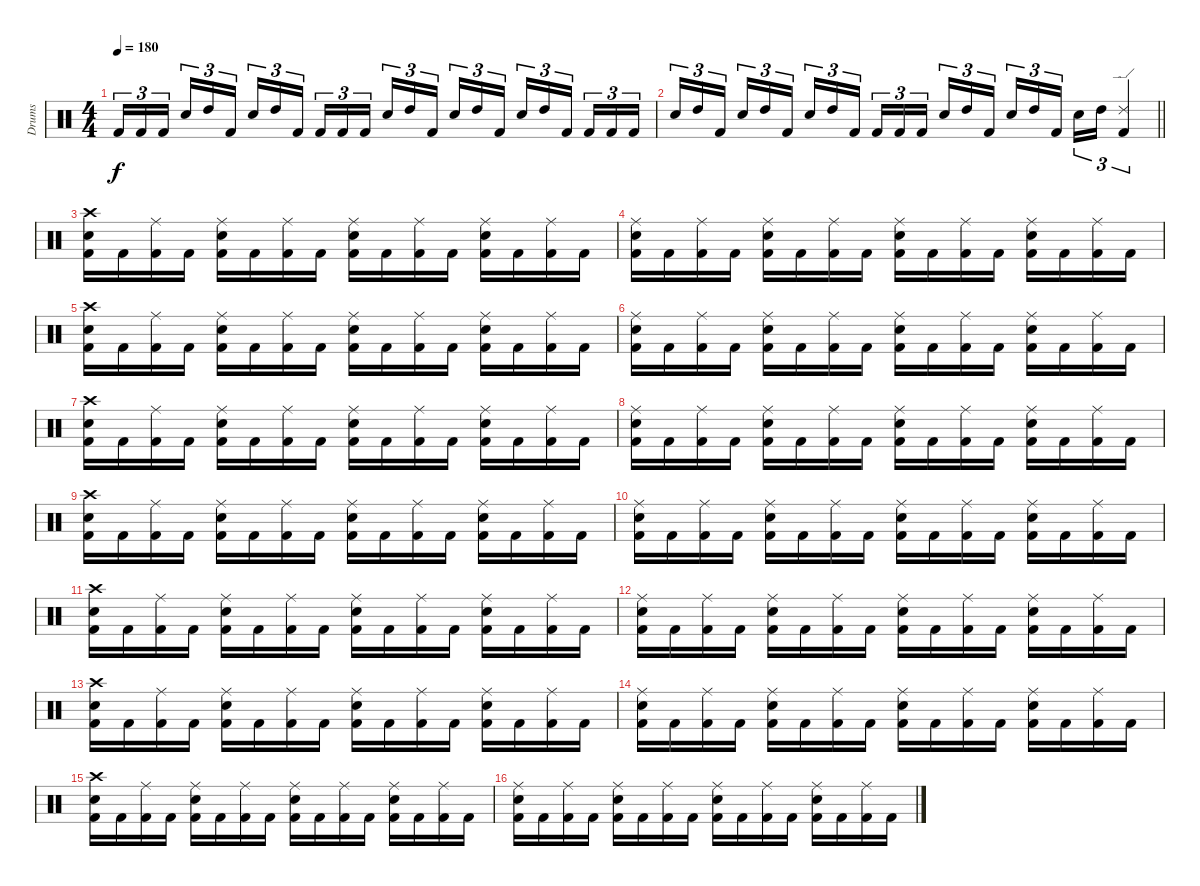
\track ("Drums" "Drums") {instrument percussion}
\staff {score}
\articulation defaults
\ts (4 4)
\tempo 180
\clef neutral
\ks c "Kick (hit) 2".16{tu (3 2) dy f} "Kick (hit) 2".16{tu (3 2)} "Kick (hit) 2".16{tu (3 2)} "Electric Snare (hit)".16{tu (3 2)} "High Tom (hit)".16{tu (3 2)} "Kick (hit) 2".16{tu (3 2)} "Electric Snare (hit)".16{tu (3 2)} "High Tom (hit)".16{tu (3 2)} "Kick (hit) 2".16{tu (3 2)} "Kick (hit) 2".16{tu (3 2)} "Kick (hit) 2".16{tu (3 2)} "Kick (hit) 2".16{tu (3 2)} "Electric Snare (hit)".16{tu (3 2)} "High Tom (hit)".16{tu (3 2)} "Kick (hit) 2".16{tu (3 2)} "Electric Snare (hit)".16{tu (3 2)} "High Tom (hit)".16{tu (3 2)} "Kick (hit) 2".16{tu (3 2)} "Electric Snare (hit)".16{tu (3 2)} "High Tom (hit)".16{tu (3 2)} "Kick (hit) 2".16{tu (3 2)} "Kick (hit) 2".16{tu (3 2)} "Kick (hit) 2".16{tu (3 2)} "Kick (hit) 2".16{tu (3 2)}
|
\barLineRight lightlight "Electric Snare (hit)".16{tu (3 2)} "High Tom (hit)".16{tu (3 2)} "Kick (hit) 2".16{tu (3 2)} "Electric Snare (hit)".16{tu (3 2)} "High Tom (hit)".16{tu (3 2)} "Kick (hit) 2".16{tu (3 2)} "Electric Snare (hit)".16{tu (3 2)} "High Tom (hit)".16{tu (3 2)} "Kick (hit) 2".16{tu (3 2)} "Kick (hit) 2".16{tu (3 2)} "Kick (hit) 2".16{tu (3 2)} "Kick (hit) 2".16{tu (3 2)} "Electric Snare (hit)".16{tu (3 2)} "High Tom (hit)".16{tu (3 2)} "Kick (hit) 2".16{tu (3 2)} "Electric Snare (hit)".16{tu (3 2)} "High Tom (hit)".16{tu (3 2)} "Kick (hit) 2".16{tu (3 2)} "Electric Snare (hit)".16{tu (3 2)} "High Tom (hit)".16{tu (3 2)}
("Ride (edge) 2" "Kick (hit) 2").4{tu (3 2)} |
\section ("" "")
("Crash high (hit)" "Electric Snare (hit)" "Kick (hit) 2").16 "Kick (hit) 2".16 ("Ride (middle)" "Kick (hit) 2").16 "Kick (hit) 2".16 ("Ride (middle)" "Electric Snare (hit)" "Kick (hit) 2").16 "Kick (hit) 2".16 ("Ride (middle)" "Kick (hit) 2").16 "Kick (hit) 2".16 ("Ride (middle)" "Electric Snare (hit)" "Kick (hit) 2").16 "Kick (hit) 2".16 ("Ride (middle)" "Kick (hit) 2").16 "Kick (hit) 2".16 ("Ride (middle)" "Electric Snare (hit)" "Kick (hit) 2").16 "Kick (hit) 2".16 ("Ride (middle)" "Kick (hit) 2").16 "Kick (hit) 2".16 |
("Ride (middle)" "Electric Snare (hit)" "Kick (hit) 2").16 "Kick (hit) 2".16 ("Ride (middle)" "Kick (hit) 2").16 "Kick (hit) 2".16 ("Ride (middle)" "Electric Snare (hit)" "Kick (hit) 2").16 "Kick (hit) 2".16 ("Ride (middle)" "Kick (hit) 2").16 "Kick (hit) 2".16 ("Ride (middle)" "Electric Snare (hit)" "Kick (hit) 2").16 "Kick (hit) 2".16 ("Ride (middle)" "Kick (hit) 2").16 "Kick (hit) 2".16 ("Ride (middle)" "Electric Snare (hit)" "Kick (hit) 2").16 "Kick (hit) 2".16 ("Ride (middle)" "Kick (hit) 2").16 "Kick (hit) 2".16 |
("Crash high (hit)" "Electric Snare (hit)" "Kick (hit) 2").16 "Kick (hit) 2".16 ("Ride (middle)" "Kick (hit) 2").16 "Kick (hit) 2".16 ("Ride (middle)" "Electric Snare (hit)" "Kick (hit) 2").16 "Kick (hit) 2".16 ("Ride (middle)" "Kick (hit) 2").16 "Kick (hit) 2".16 ("Ride (middle)" "Electric Snare (hit)" "Kick (hit) 2").16 "Kick (hit) 2".16 ("Ride (middle)" "Kick (hit) 2").16 "Kick (hit) 2".16 ("Ride (middle)" "Electric Snare (hit)" "Kick (hit) 2").16 "Kick (hit) 2".16 ("Ride (middle)" "Kick (hit) 2").16 "Kick (hit) 2".16 |
("Ride (middle)" "Electric Snare (hit)" "Kick (hit) 2").16 "Kick (hit) 2".16 ("Ride (middle)" "Kick (hit) 2").16 "Kick (hit) 2".16 ("Ride (middle)" "Electric Snare (hit)" "Kick (hit) 2").16 "Kick (hit) 2".16 ("Ride (middle)" "Kick (hit) 2").16 "Kick (hit) 2".16 ("Ride (middle)" "Electric Snare (hit)" "Kick (hit) 2").16 "Kick (hit) 2".16 ("Ride (middle)" "Kick (hit) 2").16 "Kick (hit) 2".16 ("Ride (middle)" "Electric Snare (hit)" "Kick (hit) 2").16 "Kick (hit) 2".16 ("Ride (middle)" "Kick (hit) 2").16 "Kick (hit) 2".16 |
("Crash high (hit)" "Electric Snare (hit)" "Kick (hit) 2").16 "Kick (hit) 2".16 ("Ride (middle)" "Kick (hit) 2").16 "Kick (hit) 2".16 ("Ride (middle)" "Electric Snare (hit)" "Kick (hit) 2").16 "Kick (hit) 2".16 ("Ride (middle)" "Kick (hit) 2").16 "Kick (hit) 2".16 ("Ride (middle)" "Electric Snare (hit)" "Kick (hit) 2").16 "Kick (hit) 2".16 ("Ride (middle)" "Kick (hit) 2").16 "Kick (hit) 2".16 ("Ride (middle)" "Electric Snare (hit)" "Kick (hit) 2").16 "Kick (hit) 2".16 ("Ride (middle)" "Kick (hit) 2").16 "Kick (hit) 2".16 |
("Ride (middle)" "Electric Snare (hit)" "Kick (hit) 2").16 "Kick (hit) 2".16 ("Ride (middle)" "Kick (hit) 2").16 "Kick (hit) 2".16 ("Ride (middle)" "Electric Snare (hit)" "Kick (hit) 2").16 "Kick (hit) 2".16 ("Ride (middle)" "Kick (hit) 2").16 "Kick (hit) 2".16 ("Ride (middle)" "Electric Snare (hit)" "Kick (hit) 2").16 "Kick (hit) 2".16 ("Ride (middle)" "Kick (hit) 2").16 "Kick (hit) 2".16 ("Ride (middle)" "Electric Snare (hit)" "Kick (hit) 2").16 "Kick (hit) 2".16 ("Ride (middle)" "Kick (hit) 2").16 "Kick (hit) 2".16 |
("Crash high (hit)" "Electric Snare (hit)" "Kick (hit) 2").16 "Kick (hit) 2".16 ("Ride (middle)" "Kick (hit) 2").16 "Kick (hit) 2".16 ("Ride (middle)" "Electric Snare (hit)" "Kick (hit) 2").16 "Kick (hit) 2".16 ("Ride (middle)" "Kick (hit) 2").16 "Kick (hit) 2".16 ("Ride (middle)" "Electric Snare (hit)" "Kick (hit) 2").16 "Kick (hit) 2".16 ("Ride (middle)" "Kick (hit) 2").16 "Kick (hit) 2".16 ("Ride (middle)" "Electric Snare (hit)" "Kick (hit) 2").16 "Kick (hit) 2".16 ("Ride (middle)" "Kick (hit) 2").16 "Kick (hit) 2".16 |
("Ride (middle)" "Electric Snare (hit)" "Kick (hit) 2").16 "Kick (hit) 2".16 ("Ride (middle)" "Kick (hit) 2").16 "Kick (hit) 2".16 ("Ride (middle)" "Electric Snare (hit)" "Kick (hit) 2").16 "Kick (hit) 2".16 ("Ride (middle)" "Kick (hit) 2").16 "Kick (hit) 2".16 ("Ride (middle)" "Electric Snare (hit)" "Kick (hit) 2").16 "Kick (hit) 2".16 ("Ride (middle)" "Kick (hit) 2").16 "Kick (hit) 2".16 ("Ride (middle)" "Electric Snare (hit)" "Kick (hit) 2").16 "Kick (hit) 2".16 ("Ride (middle)" "Kick (hit) 2").16 "Kick (hit) 2".16 |
("Crash high (hit)" "Electric Snare (hit)" "Kick (hit) 2").16 "Kick (hit) 2".16 ("Ride (middle)" "Kick (hit) 2").16 "Kick (hit) 2".16 ("Ride (middle)" "Electric Snare (hit)" "Kick (hit) 2").16 "Kick (hit) 2".16 ("Ride (middle)" "Kick (hit) 2").16 "Kick (hit) 2".16 ("Ride (middle)" "Electric Snare (hit)" "Kick (hit) 2").16 "Kick (hit) 2".16 ("Ride (middle)" "Kick (hit) 2").16 "Kick (hit) 2".16 ("Ride (middle)" "Electric Snare (hit)" "Kick (hit) 2").16 "Kick (hit) 2".16 ("Ride (middle)" "Kick (hit) 2").16 "Kick (hit) 2".16 |
("Ride (middle)" "Electric Snare (hit)" "Kick (hit) 2").16 "Kick (hit) 2".16 ("Ride (middle)" "Kick (hit) 2").16 "Kick (hit) 2".16 ("Ride (middle)" "Electric Snare (hit)" "Kick (hit) 2").16 "Kick (hit) 2".16 ("Ride (middle)" "Kick (hit) 2").16 "Kick (hit) 2".16 ("Ride (middle)" "Electric Snare (hit)" "Kick (hit) 2").16 "Kick (hit) 2".16 ("Ride (middle)" "Kick (hit) 2").16 "Kick (hit) 2".16 ("Ride (middle)" "Electric Snare (hit)" "Kick (hit) 2").16 "Kick (hit) 2".16 ("Ride (middle)" "Kick (hit) 2").16 "Kick (hit) 2".16 |
("Crash high (hit)" "Electric Snare (hit)" "Kick (hit) 2").16 "Kick (hit) 2".16 ("Ride (middle)" "Kick (hit) 2").16 "Kick (hit) 2".16 ("Ride (middle)" "Electric Snare (hit)" "Kick (hit) 2").16 "Kick (hit) 2".16 ("Ride (middle)" "Kick (hit) 2").16 "Kick (hit) 2".16 ("Ride (middle)" "Electric Snare (hit)" "Kick (hit) 2").16 "Kick (hit) 2".16 ("Ride (middle)" "Kick (hit) 2").16 "Kick (hit) 2".16 ("Ride (middle)" "Electric Snare (hit)" "Kick (hit) 2").16 "Kick (hit) 2".16 ("Ride (middle)" "Kick (hit) 2").16 "Kick (hit) 2".16 |
("Ride (middle)" "Electric Snare (hit)" "Kick (hit) 2").16 "Kick (hit) 2".16 ("Ride (middle)" "Kick (hit) 2").16 "Kick (hit) 2".16 ("Ride (middle)" "Electric Snare (hit)" "Kick (hit) 2").16 "Kick (hit) 2".16 ("Ride (middle)" "Kick (hit) 2").16 "Kick (hit) 2".16 ("Ride (middle)" "Electric Snare (hit)" "Kick (hit) 2").16 "Kick (hit) 2".16 ("Ride (middle)" "Kick (hit) 2").16 "Kick (hit) 2".16 ("Ride (middle)" "Electric Snare (hit)" "Kick (hit) 2").16 "Kick (hit) 2".16 ("Ride (middle)" "Kick (hit) 2").16 "Kick (hit) 2".16 |
("Crash high (hit)" "Electric Snare (hit)" "Kick (hit) 2").16 "Kick (hit) 2".16 ("Ride (middle)" "Kick (hit) 2").16 "Kick (hit) 2".16 ("Ride (middle)" "Electric Snare (hit)" "Kick (hit) 2").16 "Kick (hit) 2".16 ("Ride (middle)" "Kick (hit) 2").16 "Kick (hit) 2".16 ("Ride (middle)" "Electric Snare (hit)" "Kick (hit) 2").16 "Kick (hit) 2".16 ("Ride (middle)" "Kick (hit) 2").16 "Kick (hit) 2".16 ("Ride (middle)" "Electric Snare (hit)" "Kick (hit) 2").16 "Kick (hit) 2".16 ("Ride (middle)" "Kick (hit) 2").16 "Kick (hit) 2".16 |
("Ride (middle)" "Electric Snare (hit)" "Kick (hit) 2").16 "Kick (hit) 2".16 ("Ride (middle)" "Kick (hit) 2").16 "Kick (hit) 2".16 ("Ride (middle)" "Electric Snare (hit)" "Kick (hit) 2").16 "Kick (hit) 2".16 ("Ride (middle)" "Kick (hit) 2").16 "Kick (hit) 2".16 ("Ride (middle)" "Electric Snare (hit)" "Kick (hit) 2").16 "Kick (hit) 2".16 ("Ride (middle)" "Kick (hit) 2").16 "Kick (hit) 2".16 ("Ride (middle)" "Electric Snare (hit)" "Kick (hit) 2").16 "Kick (hit) 2".16 ("Ride (middle)" "Kick (hit) 2").16 "Kick (hit) 2".16
